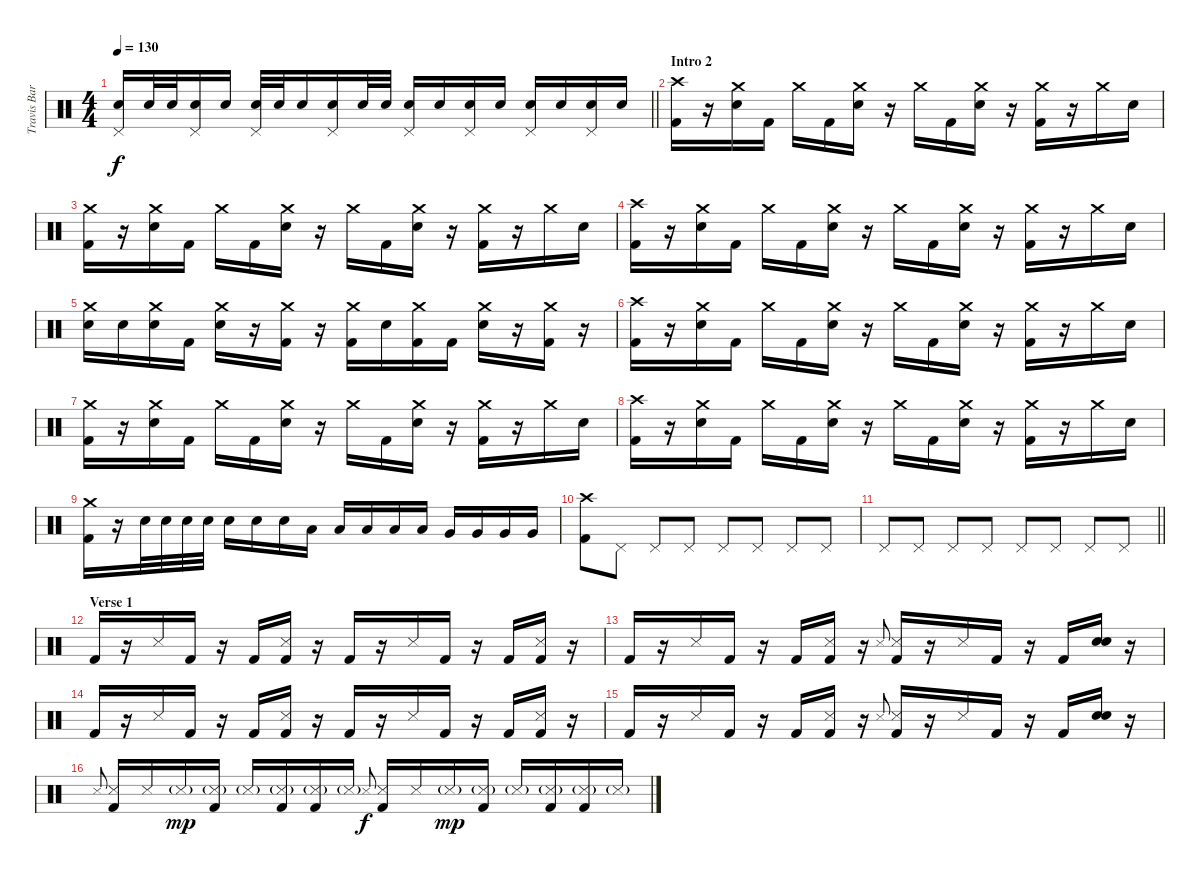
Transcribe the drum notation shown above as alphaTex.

\track ("Travis Barker [Drums]" "Travis Bar") {instrument percussion}
\staff {score}
\articulation defaults
\ts (4 4)
\tempo 130
\clef neutral
\barLineRight lightlight
\ks c
("Pedal Hi-Hat (hit)" "Electric Snare (hit)").16{dy f} "Electric Snare (hit)".32 "Electric Snare (hit)".32 ("Pedal Hi-Hat (hit)" "Electric Snare (hit)").16 "Electric Snare (hit)".16 ("Pedal Hi-Hat (hit)" "Electric Snare (hit)").32 "Electric Snare (hit)".32 "Electric Snare (hit)".16 ("Pedal Hi-Hat (hit)" "Electric Snare (hit)").16 "Electric Snare (hit)".32 "Electric Snare (hit)".32 ("Pedal Hi-Hat (hit)" "Electric Snare (hit)").16 "Electric Snare (hit)".16 ("Pedal Hi-Hat (hit)" "Electric Snare (hit)").16 "Electric Snare (hit)".16 ("Pedal Hi-Hat (hit)" "Electric Snare (hit)").16 "Electric Snare (hit)".16 ("Pedal Hi-Hat (hit)" "Electric Snare (hit)").16 "Electric Snare (hit)".16 |
\section ("" "Intro 2")
("Crash high (hit)" "Kick (hit) 2").16 r.16 ("Crash medium (hit)" "Electric Snare (hit)").16 "Kick (hit) 2".16 "Crash medium (hit)".16 "Kick (hit) 2".16 ("Crash medium (hit)" "Electric Snare (hit)").16 r.16 "Crash medium (hit)".16 "Kick (hit) 2".16 ("Crash medium (hit)" "Electric Snare (hit)").16 r.16 ("Crash medium (hit)" "Kick (hit) 2").16 r.16 "Crash medium (hit)".16 "Electric Snare (hit)".16 |
("Crash medium (hit)" "Kick (hit) 2").16 r.16 ("Crash medium (hit)" "Electric Snare (hit)").16 "Kick (hit) 2".16 "Crash medium (hit)".16 "Kick (hit) 2".16 ("Crash medium (hit)" "Electric Snare (hit)").16 r.16 "Crash medium (hit)".16 "Kick (hit) 2".16 ("Crash medium (hit)" "Electric Snare (hit)").16 r.16 ("Crash medium (hit)" "Kick (hit) 2").16 r.16 "Crash medium (hit)".16 "Electric Snare (hit)".16 |
("Crash high (hit)" "Kick (hit) 2").16 r.16 ("Crash medium (hit)" "Electric Snare (hit)").16 "Kick (hit) 2".16 "Crash medium (hit)".16 "Kick (hit) 2".16 ("Crash medium (hit)" "Electric Snare (hit)").16 r.16 "Crash medium (hit)".16 "Kick (hit) 2".16 ("Crash medium (hit)" "Electric Snare (hit)").16 r.16 ("Crash medium (hit)" "Kick (hit) 2").16 r.16 "Crash medium (hit)".16 "Electric Snare (hit)".16 |
("Crash medium (hit)" "Electric Snare (hit)").16 "Electric Snare (hit)".16 ("Crash medium (hit)" "Electric Snare (hit)").16 "Kick (hit) 2".16 ("Crash medium (hit)" "Electric Snare (hit)").16 r.16 ("Crash medium (hit)" "Kick (hit) 2").16 r.16 ("Crash medium (hit)" "Kick (hit) 2").16 "Electric Snare (hit)".16 ("Crash medium (hit)" "Kick (hit) 2").16 "Kick (hit) 2".16 ("Crash medium (hit)" "Electric Snare (hit)").16 r.16 ("Crash medium (hit)" "Kick (hit) 2").16 r.16 |
("Crash high (hit)" "Kick (hit) 2").16 r.16 ("Crash medium (hit)" "Electric Snare (hit)").16 "Kick (hit) 2".16 "Crash medium (hit)".16 "Kick (hit) 2".16 ("Crash medium (hit)" "Electric Snare (hit)").16 r.16 "Crash medium (hit)".16 "Kick (hit) 2".16 ("Crash medium (hit)" "Electric Snare (hit)").16 r.16 ("Crash medium (hit)" "Kick (hit) 2").16 r.16 "Crash medium (hit)".16 "Electric Snare (hit)".16 |
("Crash medium (hit)" "Kick (hit) 2").16 r.16 ("Crash medium (hit)" "Electric Snare (hit)").16 "Kick (hit) 2".16 "Crash medium (hit)".16 "Kick (hit) 2".16 ("Crash medium (hit)" "Electric Snare (hit)").16 r.16 "Crash medium (hit)".16 "Kick (hit) 2".16 ("Crash medium (hit)" "Electric Snare (hit)").16 r.16 ("Crash medium (hit)" "Kick (hit) 2").16 r.16 "Crash medium (hit)".16 "Electric Snare (hit)".16 |
("Crash high (hit)" "Kick (hit) 2").16 r.16 ("Crash medium (hit)" "Electric Snare (hit)").16 "Kick (hit) 2".16 "Crash medium (hit)".16 "Kick (hit) 2".16 ("Crash medium (hit)" "Electric Snare (hit)").16 r.16 "Crash medium (hit)".16 "Kick (hit) 2".16 ("Crash medium (hit)" "Electric Snare (hit)").16 r.16 ("Crash medium (hit)" "Kick (hit) 2").16 r.16 "Crash medium (hit)".16 "Electric Snare (hit)".16 |
("Crash medium (hit)" "Kick (hit) 2").16 r.16 "Electric Snare (hit)".32 "Electric Snare (hit)".32 "Electric Snare (hit)".32 "Electric Snare (hit)".32 "Electric Snare (hit)".16 "Electric Snare (hit)".16 "Electric Snare (hit)".16 "Low Tom (hit)".16 "Low Tom (hit)".16 "Low Tom (hit)".16 "Low Tom (hit)".16 "Low Tom (hit)".16 "Very Low Tom (hit)".16 "Very Low Tom (hit)".16 "Very Low Tom (hit)".16 "Very Low Tom (hit)".16 |
("Crash high (hit)" "Kick (hit) 2").8 "Pedal Hi-Hat (hit)".8 "Pedal Hi-Hat (hit)".8 "Pedal Hi-Hat (hit)".8 "Pedal Hi-Hat (hit)".8 "Pedal Hi-Hat (hit)".8 "Pedal Hi-Hat (hit)".8 "Pedal Hi-Hat (hit)".8 |
\barLineRight lightlight "Pedal Hi-Hat (hit)".8 "Pedal Hi-Hat (hit)".8 "Pedal Hi-Hat (hit)".8 "Pedal Hi-Hat (hit)".8 "Pedal Hi-Hat (hit)".8 "Pedal Hi-Hat (hit)".8 "Pedal Hi-Hat (hit)".8 "Pedal Hi-Hat (hit)".8
|
\section ("" "Verse 1")
"Kick (hit) 2".16 r.16 "Snare (side stick) 3".16 "Kick (hit) 2".16 r.16 "Kick (hit) 2".16 ("Snare (side stick) 3" "Kick (hit) 2").16 r.16 "Kick (hit) 2".16 r.16 "Snare (side stick) 3".16 "Kick (hit) 2".16 r.16 "Kick (hit) 2".16 ("Snare (side stick) 3" "Kick (hit) 2").16 r.16 |
"Kick (hit) 2".16 r.16 "Snare (side stick) 3".16 "Kick (hit) 2".16 r.16 "Kick (hit) 2".16 ("Snare (side stick) 3" "Kick (hit) 2").16 r.16 "Snare (side stick) 3"{x}.8{gr onbeat} ("Snare (side stick) 3" "Kick (hit) 2").16 r.16 "Snare (side stick) 3".16 "Kick (hit) 2".16 r.16 "Kick (hit) 2".16 ("Electric Snare (hit)" "Electric Snare (hit)").16 r.16 |
"Kick (hit) 2".16 r.16 "Snare (side stick) 3".16 "Kick (hit) 2".16 r.16 "Kick (hit) 2".16 ("Snare (side stick) 3" "Kick (hit) 2").16 r.16 "Kick (hit) 2".16 r.16 "Snare (side stick) 3".16 "Kick (hit) 2".16 r.16 "Kick (hit) 2".16 ("Snare (side stick) 3" "Kick (hit) 2").16 r.16 |
"Kick (hit) 2".16 r.16 "Snare (side stick) 3".16 "Kick (hit) 2".16 r.16 "Kick (hit) 2".16 ("Snare (side stick) 3" "Kick (hit) 2").16 r.16 "Snare (side stick) 3"{x}.8{gr onbeat} ("Snare (side stick) 3" "Kick (hit) 2").16 r.16 "Snare (side stick) 3".16 "Kick (hit) 2".16 r.16 "Kick (hit) 2".16 ("Electric Snare (hit)" "Electric Snare (hit)").16 r.16 |
"Snare (side stick) 3".8{gr onbeat} ("Snare (side stick) 3" "Kick (hit) 2").16 "Snare (side stick) 3".16 "Snare (side stick) 3"{g}.16{dy mp} ("Snare (side stick) 3"{g} "Kick (hit) 2").16 "Snare (side stick) 3"{g}.16 ("Snare (side stick) 3"{g} "Kick (hit) 2").16 ("Snare (side stick) 3"{g} "Kick (hit) 2").16 "Snare (side stick) 3"{g}.16 "Snare (side stick) 3".8{gr onbeat dy f} ("Snare (side stick) 3" "Kick (hit) 2").16 "Snare (side stick) 3".16 "Snare (side stick) 3"{g}.16{dy mp} ("Snare (side stick) 3"{g} "Kick (hit) 2").16 "Snare (side stick) 3"{g}.16 ("Snare (side stick) 3"{g} "Kick (hit) 2").16 ("Snare (side stick) 3"{g} "Kick (hit) 2").16 "Snare (side stick) 3"{g}.16
